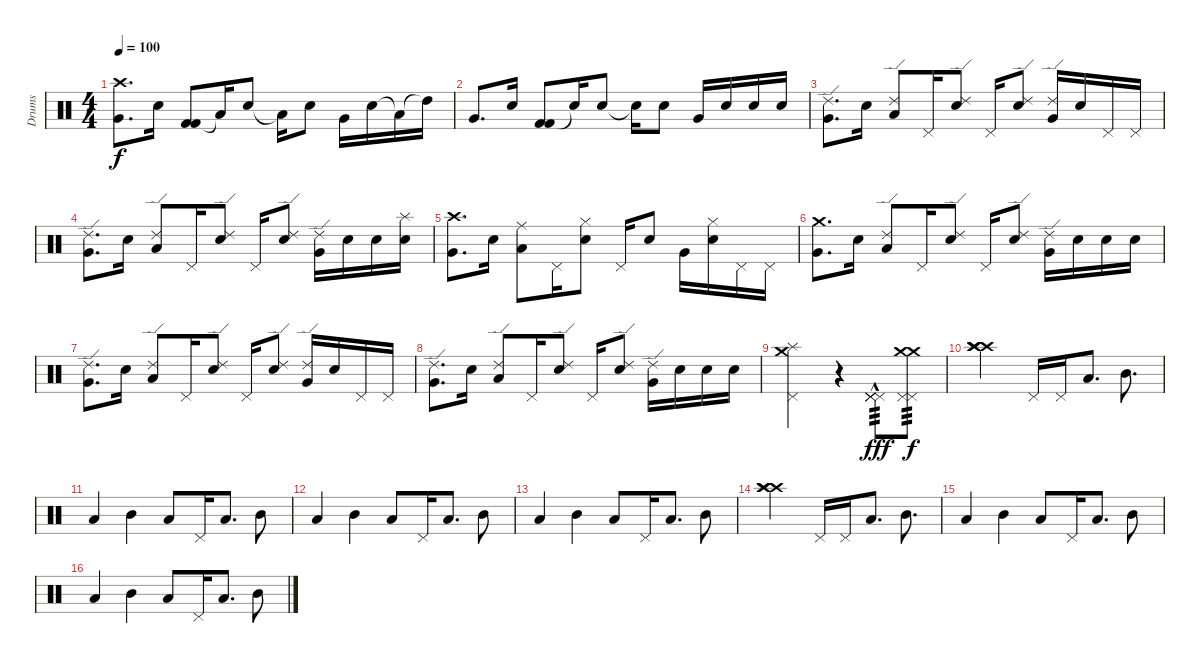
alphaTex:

\track ("Drums" "Drums") {instrument percussion}
\staff {score}
\articulation defaults
\ts (4 4)
\tempo 100
\clef neutral
\ks c
("Crash high (hit)" "Very Low Tom (hit)").8{d dy f} "Electric Snare (hit)".16 ("Kick (hit) 2" "Kick (hit) 2").8 "Low Tom (hit)"{t}.16 "Electric Snare (hit)".8 "Low Tom (hit)"{t}.16 "Electric Snare (hit)".8 "Very Low Tom (hit)".16 "Electric Snare (hit)".16 "Low Tom (hit)"{t}.16 "High Tom (hit)"{t}.16 |
"Very Low Tom (hit)".8{d} "Electric Snare (hit)".16 ("Kick (hit) 2" "Kick (hit) 2").8 "Snare (hit)"{t}.16 "Electric Snare (hit)".8 "Snare (hit)"{t}.16 "Electric Snare (hit)".8 "Very Low Tom (hit)".16 "Electric Snare (hit)".16 "Electric Snare (hit)".16 "Electric Snare (hit)".16 |
("Ride (edge) 2" "Very Low Tom (hit)").8{d} "Electric Snare (hit)".16 ("Ride (edge) 2" "Low Tom (hit)").8 "Pedal Hi-Hat (hit)".16 ("Ride (edge) 2" "Electric Snare (hit)").8 "Pedal Hi-Hat (hit)".16 ("Ride (edge) 2" "Electric Snare (hit)").8 ("Ride (edge) 2" "Very Low Tom (hit)").16 "Electric Snare (hit)".16 "Pedal Hi-Hat (hit)".16 "Pedal Hi-Hat (hit)".16 |
("Ride (edge) 2" "Very Low Tom (hit)").8{d} "Electric Snare (hit)".16 ("Ride (edge) 2" "Low Tom (hit)").8 "Pedal Hi-Hat (hit)".16 ("Ride (edge) 2" "Electric Snare (hit)").8 "Pedal Hi-Hat (hit)".16 ("Ride (edge) 2" "Electric Snare (hit)").8 ("Ride (edge) 2" "Very Low Tom (hit)").16 "Electric Snare (hit)".16 "Electric Snare (hit)".16 ("Splash (hit)" "Electric Snare (hit)").16 |
("Crash high (hit)" "Very Low Tom (hit)").8{d} "Electric Snare (hit)".16 ("Ride (middle)" "Low Tom (hit)").8 "Pedal Hi-Hat (hit)".16 ("Hi-Hat (closed)" "Electric Snare (hit)").8 "Pedal Hi-Hat (hit)".16 "Electric Snare (hit)".8 "Very Low Tom (hit)".16 ("Hi-Hat (closed)" "Electric Snare (hit)").16 "Pedal Hi-Hat (hit)".16 "Pedal Hi-Hat (hit)".16 |
("Crash medium (hit)" "Very Low Tom (hit)").8{d} "Electric Snare (hit)".16 ("Ride (edge) 2" "Low Tom (hit)").8 "Pedal Hi-Hat (hit)".16 ("Ride (edge) 2" "Electric Snare (hit)").8 "Pedal Hi-Hat (hit)".16 ("Ride (edge) 2" "Electric Snare (hit)").8 ("Ride (edge) 2" "Very Low Tom (hit)").16 "Electric Snare (hit)".16 "Electric Snare (hit)".16 "Electric Snare (hit)".16 |
("Ride (edge) 2" "Very Low Tom (hit)").8{d} "Electric Snare (hit)".16 ("Ride (edge) 2" "Low Tom (hit)").8 "Pedal Hi-Hat (hit)".16 ("Ride (edge) 2" "Electric Snare (hit)").8 "Pedal Hi-Hat (hit)".16 ("Ride (edge) 2" "Electric Snare (hit)").8 ("Ride (edge) 2" "Very Low Tom (hit)").16 "Electric Snare (hit)".16 "Pedal Hi-Hat (hit)".16 "Pedal Hi-Hat (hit)".16 |
("Ride (edge) 2" "Very Low Tom (hit)").8{d} "Electric Snare (hit)".16 ("Ride (edge) 2" "Low Tom (hit)").8 "Pedal Hi-Hat (hit)".16 ("Ride (edge) 2" "Electric Snare (hit)").8 "Pedal Hi-Hat (hit)".16 ("Ride (edge) 2" "Electric Snare (hit)").8 ("Ride (edge) 2" "Very Low Tom (hit)").16 "Electric Snare (hit)".16 "Electric Snare (hit)".16 "Electric Snare (hit)".16 |
("Crash medium (hit)" "Pedal Hi-Hat (hit)" "Splash (hit)").2 r.4 ("Pedal Hi-Hat (hit)"{hac} "Pedal Hi-Hat (hit)" "Pedal Hi-Hat (hit)" "Pedal Hi-Hat (hit)").8{tp 3 dy fff} ("Crash medium (hit)" "Crash medium (hit)" "Pedal Hi-Hat (hit)" "Pedal Hi-Hat (hit)").8{tp 3 dy f} |
("Crash high (hit)" "Crash high (hit)" "Crash high (hit)" "Crash high (hit)").2 "Pedal Hi-Hat (hit)".16 "Pedal Hi-Hat (hit)".16 "Low Tom (hit)".8{d} "Mid Tom (hit)".8{d} |
"Low Tom (hit)".4 "Mid Tom (hit)".4 "Low Tom (hit)".8 "Pedal Hi-Hat (hit)".16 "Low Tom (hit)".8{d} "Mid Tom (hit)".8 |
"Low Tom (hit)".4 "Mid Tom (hit)".4 "Low Tom (hit)".8 "Pedal Hi-Hat (hit)".16 "Low Tom (hit)".8{d} "Mid Tom (hit)".8 |
"Low Tom (hit)".4 "Mid Tom (hit)".4 "Low Tom (hit)".8 "Pedal Hi-Hat (hit)".16 "Low Tom (hit)".8{d} "Mid Tom (hit)".8 |
("Crash high (hit)" "Crash high (hit)" "Crash high (hit)" "Crash high (hit)").2 "Pedal Hi-Hat (hit)".16 "Pedal Hi-Hat (hit)".16 "Low Tom (hit)".8{d} "Mid Tom (hit)".8{d} |
"Low Tom (hit)".4 "Mid Tom (hit)".4 "Low Tom (hit)".8 "Pedal Hi-Hat (hit)".16 "Low Tom (hit)".8{d} "Mid Tom (hit)".8 |
"Low Tom (hit)".4 "Mid Tom (hit)".4 "Low Tom (hit)".8 "Pedal Hi-Hat (hit)".16 "Low Tom (hit)".8{d} "Mid Tom (hit)".8
